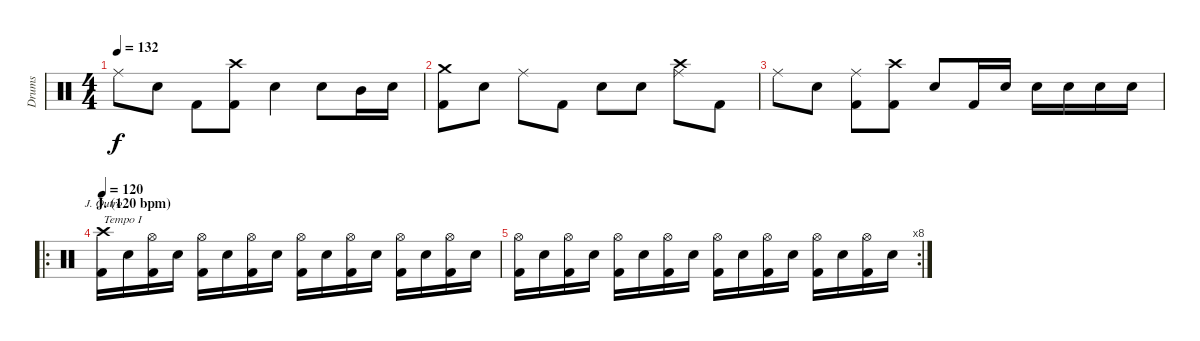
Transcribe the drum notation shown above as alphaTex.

\track ("Drums" "Drums") {instrument percussion}
\staff {score}
\articulation defaults
\chord ("J. Outro") {firstfret 0}
\ts (4 4)
\tempo 132
\clef neutral
\ks c "Ride (middle)".8{dy f} "Snare (hit) 2".8 "Kick (hit) 2".8
("Crash high (hit)" "Kick (hit) 2").8 "Snare (hit) 2".4 "Snare (hit) 2".8 "Mid Tom (hit)".16 "Snare (hit) 2".16 |
("Crash medium (hit)" "Kick (hit) 2").8 "Snare (hit) 2".8 "Ride (middle)".8 "Kick (hit) 2".8 "Snare (hit) 2".8 "Snare (hit) 2".8 ("Crash high (hit)" "Ride (middle)").8 "Kick (hit) 2".8 |
"Ride (middle)".8 "Snare (hit) 2".8 ("Ride (middle)" "Kick (hit) 2").8 ("Crash high (hit)" "Kick (hit) 2").8 "Snare (hit) 2".8 "Kick (hit) 2".16 "Snare (hit) 2".16 "Snare (hit) 2".16 "Snare (hit) 2".16 "Snare (hit) 2".16 "Snare (hit) 2".16 |
\ro
\section ("" "J. (120 bpm)")
\tempo 120
("Crash high (hit)" "Kick (hit) 2").16{ch "J. Outro" txt "Tempo I"} "Snare (hit) 2".16 ("Hi-Hat (open)" "Kick (hit) 2").16 "Snare (hit) 2".16 ("Hi-Hat (open)" "Kick (hit) 2").16 "Snare (hit) 2".16 ("Hi-Hat (open)" "Kick (hit) 2").16 "Snare (hit) 2".16 ("Hi-Hat (open)" "Kick (hit) 2").16 "Snare (hit) 2".16 ("Hi-Hat (open)" "Kick (hit) 2").16 "Snare (hit) 2".16 ("Hi-Hat (open)" "Kick (hit) 2").16 "Snare (hit) 2".16 ("Hi-Hat (open)" "Kick (hit) 2").16 "Snare (hit) 2".16 |
\rc 8
("Hi-Hat (open)" "Kick (hit) 2").16 "Snare (hit) 2".16 ("Hi-Hat (open)" "Kick (hit) 2").16 "Snare (hit) 2".16 ("Hi-Hat (open)" "Kick (hit) 2").16 "Snare (hit) 2".16 ("Hi-Hat (open)" "Kick (hit) 2").16 "Snare (hit) 2".16 ("Hi-Hat (open)" "Kick (hit) 2").16 "Snare (hit) 2".16 ("Hi-Hat (open)" "Kick (hit) 2").16 "Snare (hit) 2".16 ("Hi-Hat (open)" "Kick (hit) 2").16 "Snare (hit) 2".16 ("Hi-Hat (open)" "Kick (hit) 2").16 "Snare (hit) 2".16
